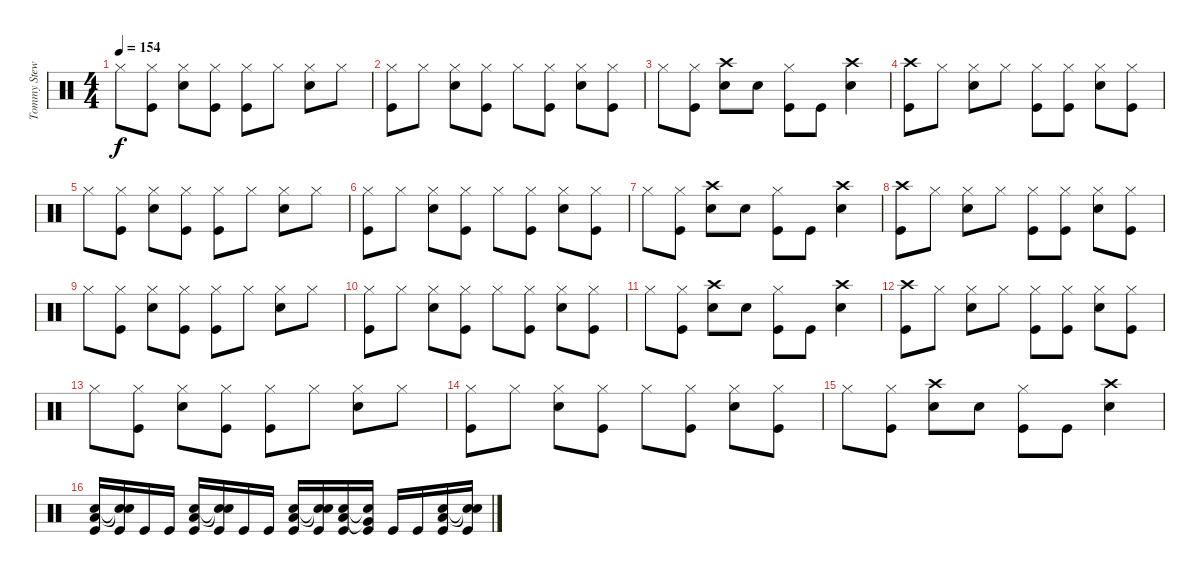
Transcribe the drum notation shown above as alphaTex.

\track ("Tommy Stewart" "Tommy Stew") {instrument percussion}
\staff {score}
\articulation defaults
\ts (4 4)
\tempo 154
\clef neutral
\ks c "Hi-Hat (closed)".8{dy f}
("Hi-Hat (closed)" "Kick (hit)").8 ("Hi-Hat (closed)" "Snare (hit) 2").8 ("Hi-Hat (closed)" "Kick (hit)").8 ("Hi-Hat (closed)" "Kick (hit)").8 "Hi-Hat (closed)".8 ("Hi-Hat (closed)" "Snare (hit) 2").8 "Hi-Hat (closed)".8 |
("Hi-Hat (closed)" "Kick (hit)").8 "Hi-Hat (closed)".8 ("Hi-Hat (closed)" "Snare (hit) 2").8 ("Hi-Hat (closed)" "Kick (hit)").8 "Hi-Hat (closed)".8 ("Hi-Hat (closed)" "Kick (hit)").8 ("Hi-Hat (closed)" "Snare (hit) 2").8 ("Hi-Hat (closed)" "Kick (hit)").8 |
"Hi-Hat (closed)".8 ("Hi-Hat (closed)" "Kick (hit)").8 ("Crash high (hit)" "Snare (hit) 2").8 "Snare (hit) 2".8 ("Hi-Hat (closed)" "Kick (hit)").8 "Kick (hit)".8 ("Crash high (hit)" "Snare (hit) 2").4 |
("Crash high (hit)" "Kick (hit)").8 "Hi-Hat (closed)".8 ("Hi-Hat (closed)" "Snare (hit) 2").8 "Hi-Hat (closed)".8 ("Hi-Hat (closed)" "Kick (hit)").8 ("Hi-Hat (closed)" "Kick (hit)").8 ("Hi-Hat (closed)" "Snare (hit) 2").8 ("Hi-Hat (closed)" "Kick (hit)").8 |
"Hi-Hat (closed)".8 ("Hi-Hat (closed)" "Kick (hit)").8 ("Hi-Hat (closed)" "Snare (hit) 2").8 ("Hi-Hat (closed)" "Kick (hit)").8 ("Hi-Hat (closed)" "Kick (hit)").8 "Hi-Hat (closed)".8 ("Hi-Hat (closed)" "Snare (hit) 2").8 "Hi-Hat (closed)".8 |
("Hi-Hat (closed)" "Kick (hit)").8 "Hi-Hat (closed)".8 ("Hi-Hat (closed)" "Snare (hit) 2").8 ("Hi-Hat (closed)" "Kick (hit)").8 "Hi-Hat (closed)".8 ("Hi-Hat (closed)" "Kick (hit)").8 ("Hi-Hat (closed)" "Snare (hit) 2").8 ("Hi-Hat (closed)" "Kick (hit)").8 |
"Hi-Hat (closed)".8 ("Hi-Hat (closed)" "Kick (hit)").8 ("Crash high (hit)" "Snare (hit) 2").8 "Snare (hit) 2".8 ("Hi-Hat (closed)" "Kick (hit)").8 "Kick (hit)".8 ("Crash high (hit)" "Snare (hit) 2").4 |
("Crash high (hit)" "Kick (hit)").8 "Hi-Hat (closed)".8 ("Hi-Hat (closed)" "Snare (hit) 2").8 "Hi-Hat (closed)".8 ("Hi-Hat (closed)" "Kick (hit)").8 ("Hi-Hat (closed)" "Kick (hit)").8 ("Hi-Hat (closed)" "Snare (hit) 2").8 ("Hi-Hat (closed)" "Kick (hit)").8 |
"Hi-Hat (closed)".8 ("Hi-Hat (closed)" "Kick (hit)").8 ("Hi-Hat (closed)" "Snare (hit) 2").8 ("Hi-Hat (closed)" "Kick (hit)").8 ("Hi-Hat (closed)" "Kick (hit)").8 "Hi-Hat (closed)".8 ("Hi-Hat (closed)" "Snare (hit) 2").8 "Hi-Hat (closed)".8 |
("Hi-Hat (closed)" "Kick (hit)").8 "Hi-Hat (closed)".8 ("Hi-Hat (closed)" "Snare (hit) 2").8 ("Hi-Hat (closed)" "Kick (hit)").8 "Hi-Hat (closed)".8 ("Hi-Hat (closed)" "Kick (hit)").8 ("Hi-Hat (closed)" "Snare (hit) 2").8 ("Hi-Hat (closed)" "Kick (hit)").8 |
"Hi-Hat (closed)".8 ("Hi-Hat (closed)" "Kick (hit)").8 ("Crash high (hit)" "Snare (hit) 2").8 "Snare (hit) 2".8 ("Hi-Hat (closed)" "Kick (hit)").8 "Kick (hit)".8 ("Crash high (hit)" "Snare (hit) 2").4 |
("Crash high (hit)" "Kick (hit)").8 "Hi-Hat (closed)".8 ("Hi-Hat (closed)" "Snare (hit) 2").8 "Hi-Hat (closed)".8 ("Hi-Hat (closed)" "Kick (hit)").8 ("Hi-Hat (closed)" "Kick (hit)").8 ("Hi-Hat (closed)" "Snare (hit) 2").8 ("Hi-Hat (closed)" "Kick (hit)").8 |
"Hi-Hat (closed)".8 ("Hi-Hat (closed)" "Kick (hit)").8 ("Hi-Hat (closed)" "Snare (hit) 2").8 ("Hi-Hat (closed)" "Kick (hit)").8 ("Hi-Hat (closed)" "Kick (hit)").8 "Hi-Hat (closed)".8 ("Hi-Hat (closed)" "Snare (hit) 2").8 "Hi-Hat (closed)".8 |
("Hi-Hat (closed)" "Kick (hit)").8 "Hi-Hat (closed)".8 ("Hi-Hat (closed)" "Snare (hit) 2").8 ("Hi-Hat (closed)" "Kick (hit)").8 "Hi-Hat (closed)".8 ("Hi-Hat (closed)" "Kick (hit)").8 ("Hi-Hat (closed)" "Snare (hit) 2").8 ("Hi-Hat (closed)" "Kick (hit)").8 |
"Hi-Hat (closed)".8 ("Hi-Hat (closed)" "Kick (hit)").8 ("Crash high (hit)" "Snare (hit) 2").8 "Snare (hit) 2".8 ("Hi-Hat (closed)" "Kick (hit)").8 "Kick (hit)".8 ("Crash high (hit)" "Snare (hit) 2").4 |
("Low Tom (hit)" "Snare (hit) 2" "Kick (hit)").16 ("Snare (hit)"{t} "Snare (hit)"{t} "Kick (hit)").16 "Kick (hit)".16 "Kick (hit)".16 ("Low Tom (hit)" "Snare (hit) 2" "Kick (hit)").16 ("Snare (hit)"{t} "Snare (hit)"{t} "Kick (hit)").16 "Kick (hit)".16 "Kick (hit)".16 ("Low Tom (hit)" "Snare (hit) 2" "Kick (hit)").16 ("Snare (hit)"{t} "Snare (hit)"{t} "Kick (hit)").16 ("Low Tom (hit)" "Snare (hit) 2" "Kick (hit)").16 ("Very Low Tom (hit)"{t} "Snare (hit)"{t} "Kick (hit)").16 "Kick (hit)".16 "Kick (hit)".16 ("Low Tom (hit)" "Snare (hit) 2" "Kick (hit)").16 ("Snare (hit)"{t} "Snare (hit)"{t} "Kick (hit)").16
